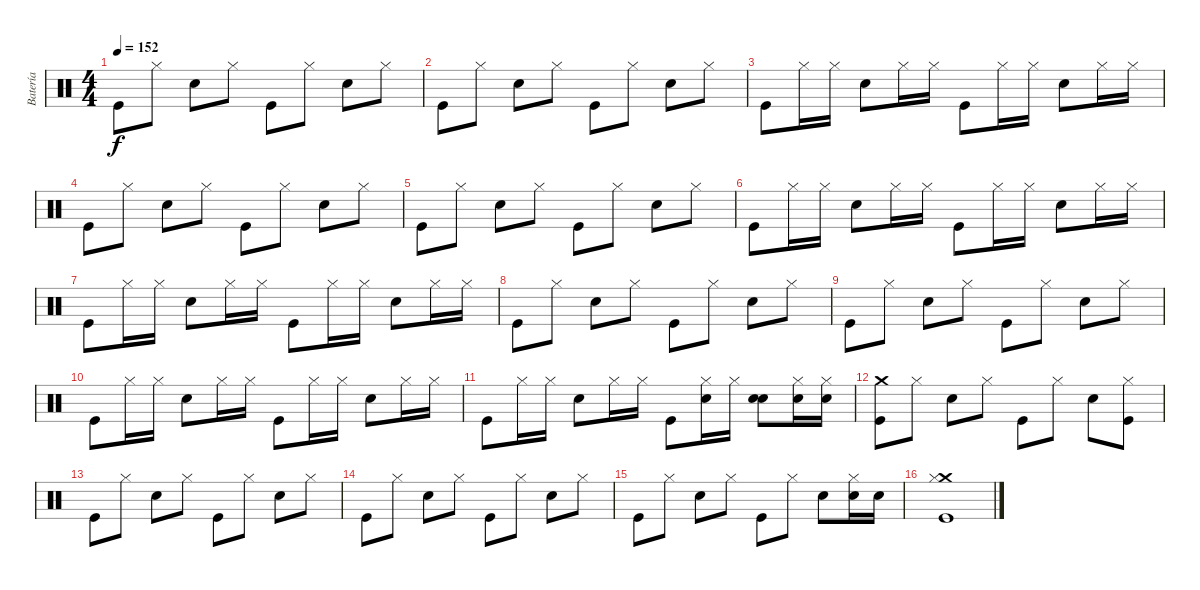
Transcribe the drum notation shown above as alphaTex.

\track ("Batería" "Batería") {instrument percussion}
\staff {score}
\articulation defaults
\ts (4 4)
\tempo 152
\clef neutral
\ks c "Kick (hit)".8{dy f} "Hi-Hat (closed)".8 "Snare (hit) 2".8 "Hi-Hat (closed)".8 "Kick (hit)".8 "Hi-Hat (closed)".8 "Snare (hit) 2".8 "Hi-Hat (closed)".8
|
"Kick (hit)".8 "Hi-Hat (closed)".8 "Snare (hit) 2".8 "Hi-Hat (closed)".8 "Kick (hit)".8 "Hi-Hat (closed)".8 "Snare (hit) 2".8 "Hi-Hat (closed)".8 |
"Kick (hit)".8 "Hi-Hat (closed)".16 "Hi-Hat (closed)".16 "Snare (hit) 2".8 "Hi-Hat (closed)".16 "Hi-Hat (closed)".16 "Kick (hit)".8 "Hi-Hat (closed)".16 "Hi-Hat (closed)".16 "Snare (hit) 2".8 "Hi-Hat (closed)".16 "Hi-Hat (closed)".16 |
"Kick (hit)".8 "Hi-Hat (closed)".8 "Snare (hit) 2".8 "Hi-Hat (closed)".8 "Kick (hit)".8 "Hi-Hat (closed)".8 "Snare (hit) 2".8 "Hi-Hat (closed)".8 |
"Kick (hit)".8 "Hi-Hat (closed)".8 "Snare (hit) 2".8 "Hi-Hat (closed)".8 "Kick (hit)".8 "Hi-Hat (closed)".8 "Snare (hit) 2".8 "Hi-Hat (closed)".8 |
"Kick (hit)".8 "Hi-Hat (closed)".16 "Hi-Hat (closed)".16 "Snare (hit) 2".8 "Hi-Hat (closed)".16 "Hi-Hat (closed)".16 "Kick (hit)".8 "Hi-Hat (closed)".16 "Hi-Hat (closed)".16 "Snare (hit) 2".8 "Hi-Hat (closed)".16 "Hi-Hat (closed)".16 |
"Kick (hit)".8 "Hi-Hat (closed)".16 "Hi-Hat (closed)".16 "Snare (hit) 2".8 "Hi-Hat (closed)".16 "Hi-Hat (closed)".16 "Kick (hit)".8 "Hi-Hat (closed)".16 "Hi-Hat (closed)".16 "Snare (hit) 2".8 "Hi-Hat (closed)".16 "Hi-Hat (closed)".16 |
"Kick (hit)".8 "Hi-Hat (closed)".8 "Snare (hit) 2".8 "Hi-Hat (closed)".8 "Kick (hit)".8 "Hi-Hat (closed)".8 "Snare (hit) 2".8 "Hi-Hat (closed)".8 |
"Kick (hit)".8 "Hi-Hat (closed)".8 "Snare (hit) 2".8 "Hi-Hat (closed)".8 "Kick (hit)".8 "Hi-Hat (closed)".8 "Snare (hit) 2".8 "Hi-Hat (closed)".8 |
"Kick (hit)".8 "Hi-Hat (closed)".16 "Hi-Hat (closed)".16 "Snare (hit) 2".8 "Hi-Hat (closed)".16 "Hi-Hat (closed)".16 "Kick (hit)".8 "Hi-Hat (closed)".16 "Hi-Hat (closed)".16 "Snare (hit) 2".8 "Hi-Hat (closed)".16 "Hi-Hat (closed)".16 |
"Kick (hit)".8 "Hi-Hat (closed)".16 "Hi-Hat (closed)".16 "Snare (hit) 2".8 "Hi-Hat (closed)".16 "Hi-Hat (closed)".16 "Kick (hit)".8 ("Hi-Hat (closed)" "Snare (hit) 2").16 "Hi-Hat (closed)".16 ("Snare (hit) 2" "Snare (hit) 2").8 ("Hi-Hat (closed)" "Snare (hit) 2").16 ("Hi-Hat (closed)" "Snare (hit) 2").16 |
("Crash medium (hit)" "Kick (hit)").8 "Hi-Hat (closed)".8 "Snare (hit) 2".8 "Hi-Hat (closed)".8 "Kick (hit)".8 "Hi-Hat (closed)".8 "Snare (hit) 2".8 ("Hi-Hat (closed)" "Kick (hit)").8 |
"Kick (hit)".8 "Hi-Hat (closed)".8 "Snare (hit) 2".8 "Hi-Hat (closed)".8 "Kick (hit)".8 "Hi-Hat (closed)".8 "Snare (hit) 2".8 "Hi-Hat (closed)".8 |
"Kick (hit)".8 "Hi-Hat (closed)".8 "Snare (hit) 2".8 "Hi-Hat (closed)".8 "Kick (hit)".8 "Hi-Hat (closed)".8 "Snare (hit) 2".8 "Hi-Hat (closed)".8 |
"Kick (hit)".8 "Hi-Hat (closed)".8 "Snare (hit) 2".8 "Hi-Hat (closed)".8 "Kick (hit)".8 "Hi-Hat (closed)".8 "Snare (hit) 2".8 ("Hi-Hat (closed)" "Snare (hit) 2").16 "Snare (hit) 2".16 |
("Crash medium (hit)" "Hi-Hat (closed)" "Kick (hit)").1
